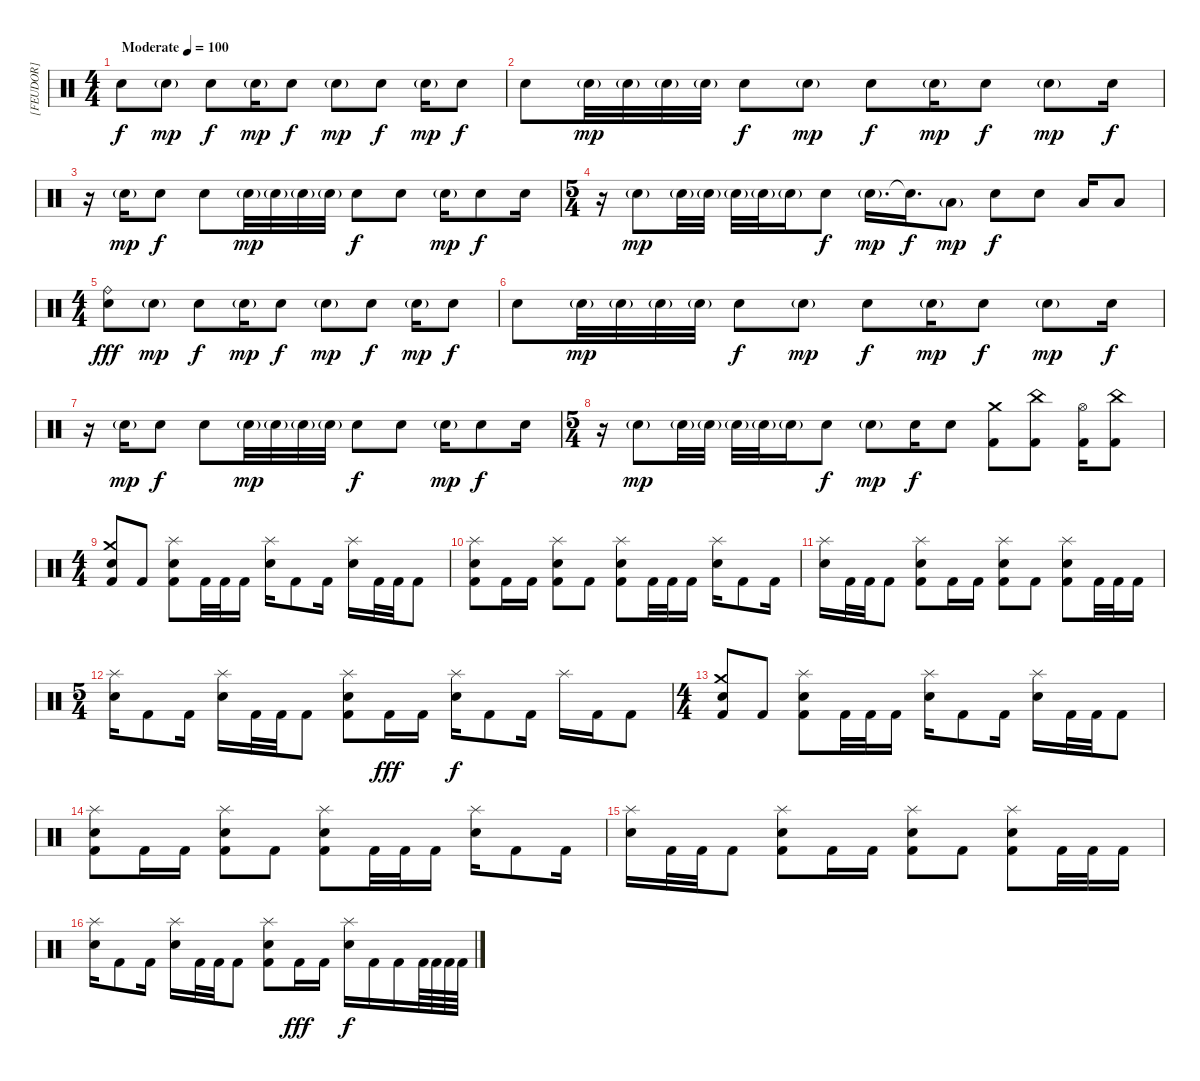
\track ("[FEUDOR]" "[FEUDOR]") {instrument percussion}
\staff {score}
\articulation defaults
\ts (4 4)
\tempo (100 "Moderate")
\clef neutral
\ks c "Snare (hit) 2".8{dy f} "Snare (hit) 2"{g}.8{dy mp} "Snare (hit) 2".8{dy f} "Snare (hit) 2"{g}.16{dy mp} "Snare (hit) 2".8{dy f} "Snare (hit) 2"{g}.8{dy mp} "Snare (hit) 2".8{dy f} "Snare (hit) 2"{g}.16{dy mp} "Snare (hit) 2".8{dy f}
|
"Snare (hit) 2".8 "Snare (hit) 2"{g}.32{dy mp} "Snare (hit) 2"{g}.32 "Snare (hit) 2"{g}.32 "Snare (hit) 2"{g}.32 "Snare (hit) 2".8{dy f} "Snare (hit) 2"{g}.8{dy mp} "Snare (hit) 2".8{dy f} "Snare (hit) 2"{g}.16{dy mp} "Snare (hit) 2".8{dy f} "Snare (hit) 2"{g}.8{dy mp} "Snare (hit) 2".16{dy f} |
r.16 "Snare (hit) 2"{g}.16{dy mp} "Snare (hit) 2".8{dy f} "Snare (hit) 2".8 "Snare (hit) 2"{g}.32{dy mp} "Snare (hit) 2"{g}.32 "Snare (hit) 2"{g}.32 "Snare (hit) 2"{g}.32 "Snare (hit) 2".8{dy f} "Snare (hit) 2".8 "Snare (hit) 2"{g}.16{dy mp} "Snare (hit) 2".8{dy f} "Snare (hit) 2".16 |
\ts (5 4)
r.16 "Snare (hit) 2"{g}.8{dy mp} "Snare (hit) 2"{g}.32 "Snare (hit) 2"{g}.32 "Snare (hit) 2"{g}.32 "Snare (hit) 2"{g}.32 "Snare (hit) 2"{g}.16 "Snare (hit) 2".8{dy f} "Snare (hit) 2"{g}.16{d dy mp} "Snare (hit) 2"{t}.16{d dy f} "Low Tom (hit)"{g}.8{dy mp} "Snare (hit) 2".8{dy f} "Snare (hit) 2".8 "Low Tom (hit)".16 "Low Tom (hit)".8 |
\ts (4 4)
("Ride (bell)" "Snare (hit) 2").8{dy fff} "Snare (hit) 2"{g}.8{dy mp} "Snare (hit) 2".8{dy f} "Snare (hit) 2"{g}.16{dy mp} "Snare (hit) 2".8{dy f} "Snare (hit) 2"{g}.8{dy mp} "Snare (hit) 2".8{dy f} "Snare (hit) 2"{g}.16{dy mp} "Snare (hit) 2".8{dy f} |
"Snare (hit) 2".8 "Snare (hit) 2"{g}.32{dy mp} "Snare (hit) 2"{g}.32 "Snare (hit) 2"{g}.32 "Snare (hit) 2"{g}.32 "Snare (hit) 2".8{dy f} "Snare (hit) 2"{g}.8{dy mp} "Snare (hit) 2".8{dy f} "Snare (hit) 2"{g}.16{dy mp} "Snare (hit) 2".8{dy f} "Snare (hit) 2"{g}.8{dy mp} "Snare (hit) 2".16{dy f} |
r.16 "Snare (hit) 2"{g}.16{dy mp} "Snare (hit) 2".8{dy f} "Snare (hit) 2".8 "Snare (hit) 2"{g}.32{dy mp} "Snare (hit) 2"{g}.32 "Snare (hit) 2"{g}.32 "Snare (hit) 2"{g}.32 "Snare (hit) 2".8{dy f} "Snare (hit) 2".8 "Snare (hit) 2"{g}.16{dy mp} "Snare (hit) 2".8{dy f} "Snare (hit) 2".16 |
\ts (5 4)
r.16 "Snare (hit) 2"{g}.8{dy mp} "Snare (hit) 2"{g}.32 "Snare (hit) 2"{g}.32 "Snare (hit) 2"{g}.32 "Snare (hit) 2"{g}.32 "Snare (hit) 2"{g}.16 "Snare (hit) 2".8{dy f} "Snare (hit) 2"{g}.8{dy mp} "Electric Snare (hit)".16{dy f} "Electric Snare (hit)".8 ("Crash medium (hit)" "Kick (hit) 2").8 ("China (hit)" "Kick (hit) 2").8 ("Hi-Hat (open)" "Kick (hit) 2").16 ("China (hit)" "Kick (hit) 2").8 |
\ts (4 4)
("Crash medium (hit)" "Electric Snare (hit)" "Kick (hit) 2").8 "Kick (hit) 2".8 ("Splash (hit)" "Electric Snare (hit)" "Kick (hit) 2").8 "Kick (hit) 2".32 "Kick (hit) 2".32 "Kick (hit) 2".16 ("Splash (hit)" "Electric Snare (hit)").16 "Kick (hit) 2".8 "Kick (hit) 2".16 ("Splash (hit)" "Electric Snare (hit)").16 "Kick (hit) 2".32 "Kick (hit) 2".32 "Kick (hit) 2".8 |
("Splash (hit)" "Electric Snare (hit)" "Kick (hit) 2").8 "Kick (hit) 2".16 "Kick (hit) 2".16 ("Splash (hit)" "Electric Snare (hit)" "Kick (hit) 2").8 "Kick (hit) 2".8 ("Splash (hit)" "Electric Snare (hit)" "Kick (hit) 2").8 "Kick (hit) 2".32 "Kick (hit) 2".32 "Kick (hit) 2".16 ("Splash (hit)" "Electric Snare (hit)").16 "Kick (hit) 2".8 "Kick (hit) 2".16 |
("Splash (hit)" "Electric Snare (hit)").16 "Kick (hit) 2".32 "Kick (hit) 2".32 "Kick (hit) 2".8 ("Splash (hit)" "Electric Snare (hit)" "Kick (hit) 2").8 "Kick (hit) 2".16 "Kick (hit) 2".16 ("Splash (hit)" "Electric Snare (hit)" "Kick (hit) 2").8 "Kick (hit) 2".8 ("Splash (hit)" "Electric Snare (hit)" "Kick (hit) 2").8 "Kick (hit) 2".32 "Kick (hit) 2".32 "Kick (hit) 2".16 |
\ts (5 4)
("Splash (hit)" "Electric Snare (hit)").16 "Kick (hit) 2".8 "Kick (hit) 2".16 ("Splash (hit)" "Electric Snare (hit)").16 "Kick (hit) 2".32 "Kick (hit) 2".32 "Kick (hit) 2".8 ("Splash (hit)" "Electric Snare (hit)" "Kick (hit) 2").8 "Kick (hit) 2".16{dy fff} "Kick (hit) 2".16 ("Splash (hit)" "Electric Snare (hit)").16{dy f} "Kick (hit) 2".8 "Kick (hit) 2".16 "Splash (hit)".16 "Kick (hit) 2".16 "Kick (hit) 2".8 |
\ts (4 4)
("Crash medium (hit)" "Electric Snare (hit)" "Kick (hit) 2").8 "Kick (hit) 2".8 ("Splash (hit)" "Electric Snare (hit)" "Kick (hit) 2").8 "Kick (hit) 2".32 "Kick (hit) 2".32 "Kick (hit) 2".16 ("Splash (hit)" "Electric Snare (hit)").16 "Kick (hit) 2".8 "Kick (hit) 2".16 ("Splash (hit)" "Electric Snare (hit)").16 "Kick (hit) 2".32 "Kick (hit) 2".32 "Kick (hit) 2".8 |
("Splash (hit)" "Electric Snare (hit)" "Kick (hit) 2").8 "Kick (hit) 2".16 "Kick (hit) 2".16 ("Splash (hit)" "Electric Snare (hit)" "Kick (hit) 2").8 "Kick (hit) 2".8 ("Splash (hit)" "Electric Snare (hit)" "Kick (hit) 2").8 "Kick (hit) 2".32 "Kick (hit) 2".32 "Kick (hit) 2".16 ("Splash (hit)" "Electric Snare (hit)").16 "Kick (hit) 2".8 "Kick (hit) 2".16 |
("Splash (hit)" "Electric Snare (hit)").16 "Kick (hit) 2".32 "Kick (hit) 2".32 "Kick (hit) 2".8 ("Splash (hit)" "Electric Snare (hit)" "Kick (hit) 2").8 "Kick (hit) 2".16 "Kick (hit) 2".16 ("Splash (hit)" "Electric Snare (hit)" "Kick (hit) 2").8 "Kick (hit) 2".8 ("Splash (hit)" "Electric Snare (hit)" "Kick (hit) 2").8 "Kick (hit) 2".32 "Kick (hit) 2".32 "Kick (hit) 2".16 |
("Splash (hit)" "Electric Snare (hit)").16 "Kick (hit) 2".8 "Kick (hit) 2".16 ("Splash (hit)" "Electric Snare (hit)").16 "Kick (hit) 2".32 "Kick (hit) 2".32 "Kick (hit) 2".8 ("Splash (hit)" "Electric Snare (hit)" "Kick (hit) 2").8 "Kick (hit) 2".16{dy fff} "Kick (hit) 2".16 ("Splash (hit)" "Electric Snare (hit)").16{dy f} "Kick (hit) 2".16 "Kick (hit) 2".16 "Kick (hit) 2".64 "Kick (hit) 2".64 "Kick (hit) 2".64 "Kick (hit) 2".64
